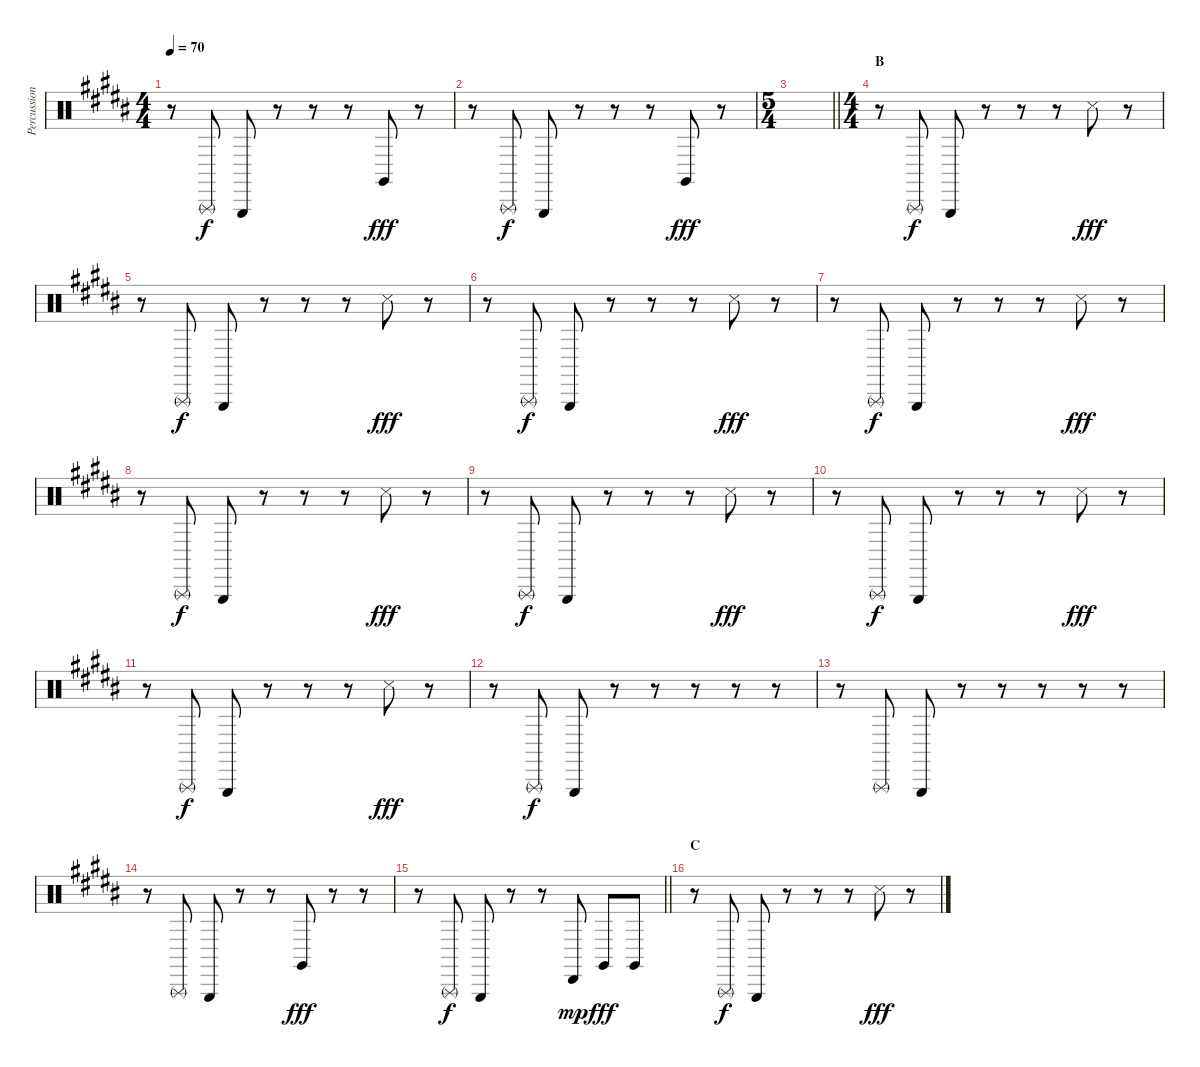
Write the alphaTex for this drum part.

\track ("Percussion" "Percussion") {instrument percussion}
\staff {score}
\articulation defaults
\ts (4 4)
\tempo 70
\clef neutral
\ks b
r.8{dy fff} "Triangle (rnute)".8{dy f} "Triangle (hit)".8 r.8 r.8 r.8 "Claves (hit)".8{dy fff} r.8 |
r.8 "Triangle (rnute)".8{dy f} "Triangle (hit)".8 r.8 r.8 r.8 "Claves (hit)".8{dy fff} r.8 |
\ts (5 4)
\barLineRight lightlight
|
\ts (4 4)
\section ("" "B")
r.8 "Triangle (rnute)".8{dy f} "Triangle (hit)".8 r.8 r.8 r.8 "Snare (side stick) 3".8{dy fff} r.8 |
r.8 "Triangle (rnute)".8{dy f} "Triangle (hit)".8 r.8 r.8 r.8 "Snare (side stick) 3".8{dy fff} r.8 |
r.8 "Triangle (rnute)".8{dy f} "Triangle (hit)".8 r.8 r.8 r.8 "Snare (side stick) 3".8{dy fff} r.8 |
r.8 "Triangle (rnute)".8{dy f} "Triangle (hit)".8 r.8 r.8 r.8 "Snare (side stick) 3".8{dy fff} r.8 |
r.8 "Triangle (rnute)".8{dy f} "Triangle (hit)".8 r.8 r.8 r.8 "Snare (side stick) 3".8{dy fff} r.8 |
r.8 "Triangle (rnute)".8{dy f} "Triangle (hit)".8 r.8 r.8 r.8 "Snare (side stick) 3".8{dy fff} r.8 |
r.8 "Triangle (rnute)".8{dy f} "Triangle (hit)".8 r.8 r.8 r.8 "Snare (side stick) 3".8{dy fff} r.8 |
r.8 "Triangle (rnute)".8{dy f} "Triangle (hit)".8 r.8 r.8 r.8 "Snare (side stick) 3".8{dy fff} r.8 |
r.8 "Triangle (rnute)".8{dy f} "Triangle (hit)".8 r.8 r.8 r.8 r.8 r.8 |
r.8 "Triangle (rnute)".8 "Triangle (hit)".8 r.8 r.8 r.8 r.8 r.8 |
r.8 "Triangle (rnute)".8 "Triangle (hit)".8 r.8 r.8 "Claves (hit)".8{dy fff} r.8 r.8 |
\barLineRight lightlight
r.8 "Triangle (rnute)".8{dy f} "Triangle (hit)".8 r.8 r.8 "Cabasa (hit)".8{dy mp} "Claves (hit)".8{dy fff} "Claves (hit)".8 |
\section ("" "C")
r.8 "Triangle (rnute)".8{dy f} "Triangle (hit)".8 r.8 r.8 r.8 "Snare (side stick) 3".8{dy fff} r.8
